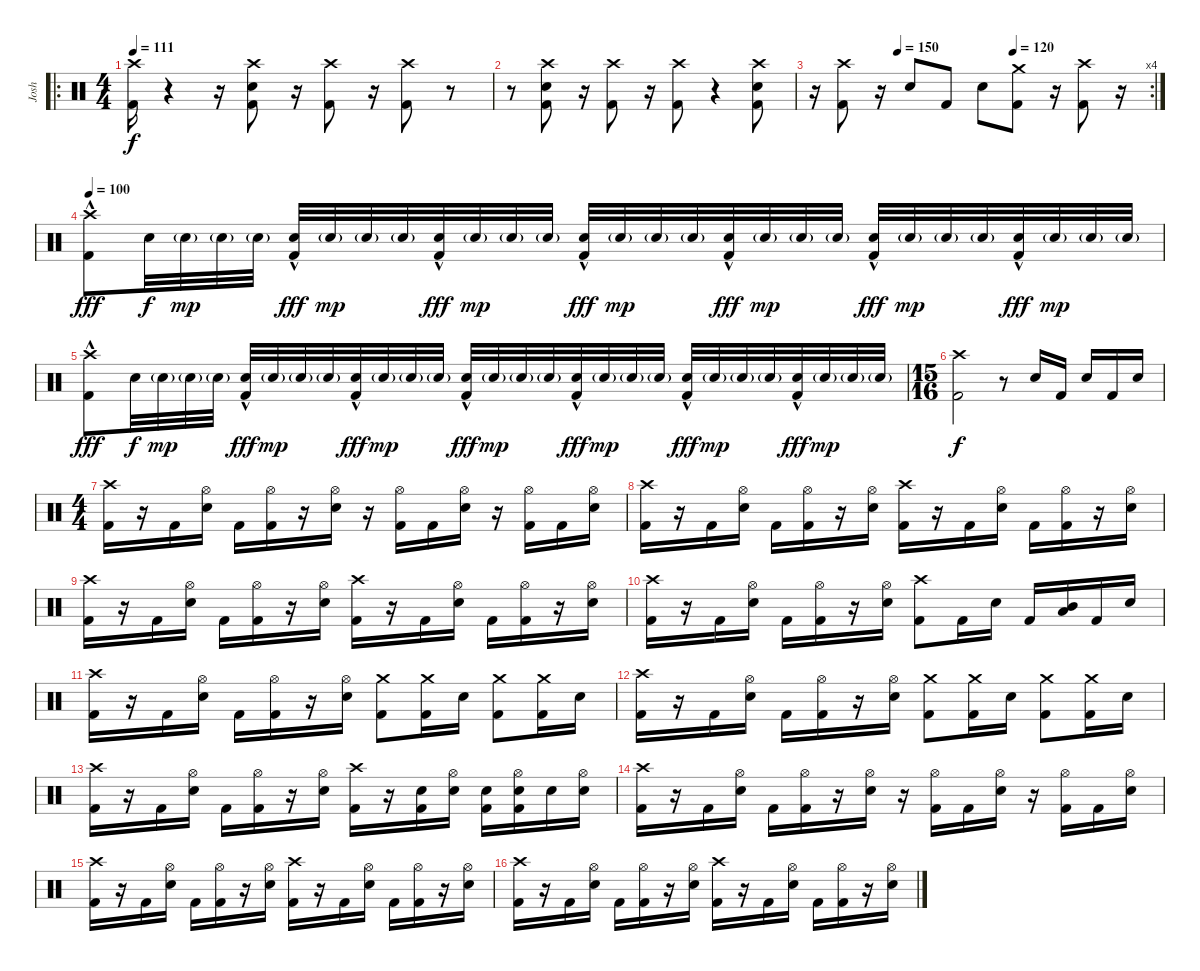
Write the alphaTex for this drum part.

\track ("Josh" "Josh") {instrument percussion}
\staff {score}
\articulation defaults
\ro
\ts (4 4)
\tempo 111
\clef neutral
\ks c
("Crash high (hit)" "Kick (hit) 2").16{dy f} r.4 r.16 ("Crash high (hit)" "Snare (hit) 2" "Kick (hit) 2").8 r.16 ("Crash high (hit)" "Kick (hit) 2").8 r.16 ("Crash high (hit)" "Kick (hit) 2").8 r.8 |
r.8 ("Crash high (hit)" "Snare (hit) 2" "Kick (hit) 2").8 r.16 ("Crash high (hit)" "Kick (hit) 2").8 r.16 ("Crash high (hit)" "Kick (hit) 2").8 r.4 ("Crash high (hit)" "Snare (hit) 2" "Kick (hit) 2").8 |
\rc 4
\tempo (130 0.25)
\tempo (150 0.25)
\tempo (120 0.59375)
r.16 ("Crash high (hit)" "Kick (hit) 2").8 r.16 "Snare (hit) 2".8 "Kick (hit) 2".8 "Snare (hit) 2".8 ("Crash medium (hit)" "Kick (hit) 2").8 r.16 ("Crash high (hit)" "Kick (hit) 2").8 r.16 |
\tempo 100
("Crash high (hit)"{hac} "Kick (hit) 2").8{dy fff} "Snare (hit) 2".32{dy f} "Snare (hit) 2"{g}.32{dy mp} "Snare (hit) 2"{g}.32 "Snare (hit) 2"{g}.32 ("Snare (hit) 2"{hac} "Kick (hit) 2").32{dy fff} "Snare (hit) 2"{g}.32{dy mp} "Snare (hit) 2"{g}.32 "Snare (hit) 2"{g}.32 ("Snare (hit) 2"{hac} "Kick (hit) 2").32{dy fff} "Snare (hit) 2"{g}.32{dy mp} "Snare (hit) 2"{g}.32 "Snare (hit) 2"{g}.32 ("Snare (hit) 2"{hac} "Kick (hit) 2").32{dy fff} "Snare (hit) 2"{g}.32{dy mp} "Snare (hit) 2"{g}.32 "Snare (hit) 2"{g}.32 ("Snare (hit) 2"{hac} "Kick (hit) 2").32{dy fff} "Snare (hit) 2"{g}.32{dy mp} "Snare (hit) 2"{g}.32 "Snare (hit) 2"{g}.32 ("Snare (hit) 2"{hac} "Kick (hit) 2").32{dy fff} "Snare (hit) 2"{g}.32{dy mp} "Snare (hit) 2"{g}.32 "Snare (hit) 2"{g}.32 ("Snare (hit) 2"{hac} "Kick (hit) 2").32{dy fff} "Snare (hit) 2"{g}.32{dy mp} "Snare (hit) 2"{g}.32 "Snare (hit) 2"{g}.32 |
("Crash high (hit)"{hac} "Kick (hit) 2").8{dy fff} "Snare (hit) 2".32{dy f} "Snare (hit) 2"{g}.32{dy mp} "Snare (hit) 2"{g}.32 "Snare (hit) 2"{g}.32 ("Snare (hit) 2"{hac} "Kick (hit) 2").32{dy fff} "Snare (hit) 2"{g}.32{dy mp} "Snare (hit) 2"{g}.32 "Snare (hit) 2"{g}.32 ("Snare (hit) 2"{hac} "Kick (hit) 2").32{dy fff} "Snare (hit) 2"{g}.32{dy mp} "Snare (hit) 2"{g}.32 "Snare (hit) 2"{g}.32 ("Snare (hit) 2"{hac} "Kick (hit) 2").32{dy fff} "Snare (hit) 2"{g}.32{dy mp} "Snare (hit) 2"{g}.32 "Snare (hit) 2"{g}.32 ("Snare (hit) 2"{hac} "Kick (hit) 2").32{dy fff} "Snare (hit) 2"{g}.32{dy mp} "Snare (hit) 2"{g}.32 "Snare (hit) 2"{g}.32 ("Snare (hit) 2"{hac} "Kick (hit) 2").32{dy fff} "Snare (hit) 2"{g}.32{dy mp} "Snare (hit) 2"{g}.32 "Snare (hit) 2"{g}.32 ("Snare (hit) 2"{hac} "Kick (hit) 2").32{dy fff} "Snare (hit) 2"{g}.32{dy mp} "Snare (hit) 2"{g}.32 "Snare (hit) 2"{g}.32 |
\ts (15 16)
("Crash high (hit)" "Kick (hit) 2").2{dy f} r.8 "Snare (hit) 2".16 "Kick (hit) 2".16 "Snare (hit) 2".16 "Kick (hit) 2".16 "Snare (hit) 2".16 |
\ts (4 4)
("Crash high (hit)" "Kick (hit) 2").16 r.16 "Kick (hit) 2".16 ("Hi-Hat (open)" "Snare (hit) 2").16 "Kick (hit) 2".16 ("Hi-Hat (open)" "Kick (hit) 2").16 r.16 ("Hi-Hat (open)" "Snare (hit) 2").16 r.16 ("Hi-Hat (open)" "Kick (hit) 2").16 "Kick (hit) 2".16 ("Hi-Hat (open)" "Snare (hit) 2").16 r.16 ("Hi-Hat (open)" "Kick (hit) 2").16 "Kick (hit) 2".16 ("Hi-Hat (open)" "Snare (hit) 2").16 |
("Crash high (hit)" "Kick (hit) 2").16 r.16 "Kick (hit) 2".16 ("Hi-Hat (open)" "Snare (hit) 2").16 "Kick (hit) 2".16 ("Hi-Hat (open)" "Kick (hit) 2").16 r.16 ("Hi-Hat (open)" "Snare (hit) 2").16 ("Crash high (hit)" "Kick (hit) 2").16 r.16 "Kick (hit) 2".16 ("Hi-Hat (open)" "Snare (hit) 2").16 "Kick (hit) 2".16 ("Hi-Hat (open)" "Kick (hit) 2").16 r.16 ("Hi-Hat (open)" "Snare (hit) 2").16 |
("Crash high (hit)" "Kick (hit) 2").16 r.16 "Kick (hit) 2".16 ("Hi-Hat (open)" "Snare (hit) 2").16 "Kick (hit) 2".16 ("Hi-Hat (open)" "Kick (hit) 2").16 r.16 ("Hi-Hat (open)" "Snare (hit) 2").16 ("Crash high (hit)" "Kick (hit) 2").16 r.16 "Kick (hit) 2".16 ("Hi-Hat (open)" "Snare (hit) 2").16 "Kick (hit) 2".16 ("Hi-Hat (open)" "Kick (hit) 2").16 r.16 ("Hi-Hat (open)" "Snare (hit) 2").16 |
("Crash high (hit)" "Kick (hit) 2").16 r.16 "Kick (hit) 2".16 ("Hi-Hat (open)" "Snare (hit) 2").16 "Kick (hit) 2".16 ("Hi-Hat (open)" "Kick (hit) 2").16 r.16 ("Hi-Hat (open)" "Snare (hit) 2").16 ("Crash high (hit)" "Kick (hit) 2").8 "Kick (hit) 2".16 "Snare (hit) 2".16 "Kick (hit) 2".16 ("Mid Tom (hit)" "Low Tom (hit)").16 "Kick (hit) 2".16 "Snare (hit) 2".16 |
("Crash high (hit)" "Kick (hit) 2").16 r.16 "Kick (hit) 2".16 ("Hi-Hat (open)" "Snare (hit) 2").16 "Kick (hit) 2".16 ("Hi-Hat (open)" "Kick (hit) 2").16 r.16 ("Hi-Hat (open)" "Snare (hit) 2").16 ("Crash medium (hit)" "Kick (hit) 2").8 ("Crash medium (hit)" "Kick (hit) 2").16 "Snare (hit) 2".16 ("Crash medium (hit)" "Kick (hit) 2").8 ("Crash medium (hit)" "Kick (hit) 2").16 "Snare (hit) 2".16 |
("Crash high (hit)" "Kick (hit) 2").16 r.16 "Kick (hit) 2".16 ("Hi-Hat (open)" "Snare (hit) 2").16 "Kick (hit) 2".16 ("Hi-Hat (open)" "Kick (hit) 2").16 r.16 ("Hi-Hat (open)" "Snare (hit) 2").16 ("Crash medium (hit)" "Kick (hit) 2").8 ("Crash medium (hit)" "Kick (hit) 2").16 "Snare (hit) 2".16 ("Crash medium (hit)" "Kick (hit) 2").8 ("Crash medium (hit)" "Kick (hit) 2").16 "Snare (hit) 2".16 |
("Crash high (hit)" "Kick (hit) 2").16 r.16 "Kick (hit) 2".16 ("Hi-Hat (open)" "Snare (hit) 2").16 "Kick (hit) 2".16 ("Hi-Hat (open)" "Kick (hit) 2").16 r.16 ("Hi-Hat (open)" "Snare (hit) 2").16 ("Crash high (hit)" "Kick (hit) 2").16 r.16 ("Snare (hit) 2" "Kick (hit) 2").16 ("Hi-Hat (open)" "Snare (hit) 2").16 ("Snare (hit) 2" "Kick (hit) 2").16 ("Hi-Hat (open)" "Snare (hit) 2" "Kick (hit) 2").16 "Snare (hit) 2".16 ("Hi-Hat (open)" "Snare (hit) 2").16 |
("Crash high (hit)" "Kick (hit) 2").16 r.16 "Kick (hit) 2".16 ("Hi-Hat (open)" "Snare (hit) 2").16 "Kick (hit) 2".16 ("Hi-Hat (open)" "Kick (hit) 2").16 r.16 ("Hi-Hat (open)" "Snare (hit) 2").16 r.16 ("Hi-Hat (open)" "Kick (hit) 2").16 "Kick (hit) 2".16 ("Hi-Hat (open)" "Snare (hit) 2").16 r.16 ("Hi-Hat (open)" "Kick (hit) 2").16 "Kick (hit) 2".16 ("Hi-Hat (open)" "Snare (hit) 2").16 |
("Crash high (hit)" "Kick (hit) 2").16 r.16 "Kick (hit) 2".16 ("Hi-Hat (open)" "Snare (hit) 2").16 "Kick (hit) 2".16 ("Hi-Hat (open)" "Kick (hit) 2").16 r.16 ("Hi-Hat (open)" "Snare (hit) 2").16 ("Crash high (hit)" "Kick (hit) 2").16 r.16 "Kick (hit) 2".16 ("Hi-Hat (open)" "Snare (hit) 2").16 "Kick (hit) 2".16 ("Hi-Hat (open)" "Kick (hit) 2").16 r.16 ("Hi-Hat (open)" "Snare (hit) 2").16 |
("Crash high (hit)" "Kick (hit) 2").16 r.16 "Kick (hit) 2".16 ("Hi-Hat (open)" "Snare (hit) 2").16 "Kick (hit) 2".16 ("Hi-Hat (open)" "Kick (hit) 2").16 r.16 ("Hi-Hat (open)" "Snare (hit) 2").16 ("Crash high (hit)" "Kick (hit) 2").16 r.16 "Kick (hit) 2".16 ("Hi-Hat (open)" "Snare (hit) 2").16 "Kick (hit) 2".16 ("Hi-Hat (open)" "Kick (hit) 2").16 r.16 ("Hi-Hat (open)" "Snare (hit) 2").16
